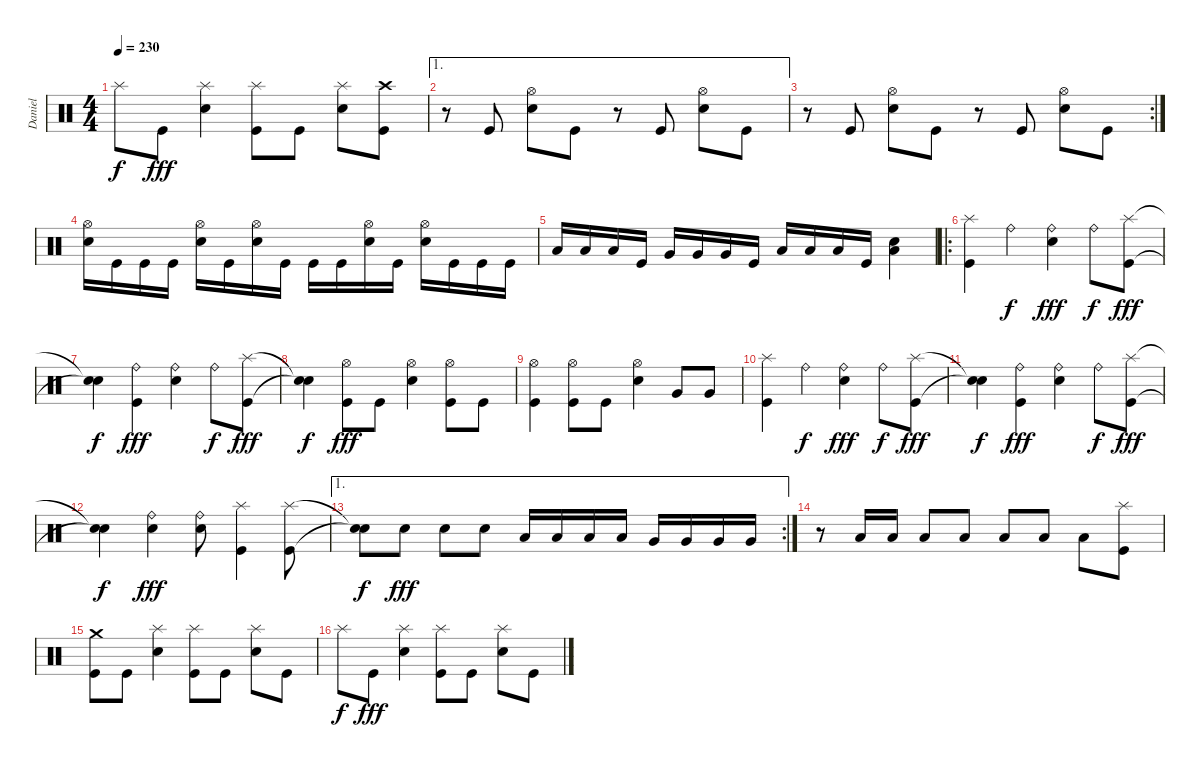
\track ("Daniel" "Daniel") {instrument percussion}
\staff {score}
\articulation defaults
\ts (4 4)
\tempo 230
\clef neutral
\ks c "Splash (hit)".8{dy f} "Kick (hit)".8{dy fff}
("Electric Snare (hit)" "Splash (hit)").4 ("Kick (hit)" "Splash (hit)").8 "Kick (hit)".8 ("Electric Snare (hit)" "Splash (hit)").8 ("Kick (hit)" "Crash high (hit)").8 |
\ae 1
r.8 "Kick (hit)".8 ("Electric Snare (hit)" "Hi-Hat (open)").8 "Kick (hit)".8 r.8 "Kick (hit)".8 ("Electric Snare (hit)" "Hi-Hat (open)").8 "Kick (hit)".8 |
\rc 2
r.8 "Kick (hit)".8 ("Electric Snare (hit)" "Hi-Hat (open)").8 "Kick (hit)".8 r.8 "Kick (hit)".8 ("Electric Snare (hit)" "Hi-Hat (open)").8 "Kick (hit)".8 |
("Electric Snare (hit)" "Hi-Hat (open)").16 "Kick (hit)".16 "Kick (hit)".16 "Kick (hit)".16 ("Electric Snare (hit)" "Hi-Hat (open)").16 "Kick (hit)".16 ("Electric Snare (hit)" "Hi-Hat (open)").16 "Kick (hit)".16 "Kick (hit)".16 "Kick (hit)".16 ("Electric Snare (hit)" "Hi-Hat (open)").16 "Kick (hit)".16 ("Electric Snare (hit)" "Hi-Hat (open)").16 "Kick (hit)".16 "Kick (hit)".16 "Kick (hit)".16 |
"Low Tom (hit)".16 "Low Tom (hit)".16 "Low Tom (hit)".16 "Kick (hit)".16 "Very Low Tom (hit)".16 "Very Low Tom (hit)".16 "Very Low Tom (hit)".16 "Kick (hit)".16 "Low Floor Tom (hit)".16 "Low Floor Tom (hit)".16 "Low Floor Tom (hit)".16 "Kick (hit)".16 ("Electric Snare (hit)" "Low Floor Tom (hit)").4 |
\ro
("Kick (hit)" "Splash (hit)").4 "Ride (bell)".4{dy f} ("Electric Snare (hit)" "Ride (bell)").4{dy fff} "Ride (bell)".8{dy f} ("Kick (hit)" "Splash (hit)").8{dy fff} |
("Snare (hit)"{t} "Snare (hit)"{t}).4{dy f} ("Kick (hit)" "Ride (bell)").4{dy fff} ("Electric Snare (hit)" "Ride (bell)").4 "Ride (bell)".8{dy f} ("Kick (hit)" "Splash (hit)").8{dy fff} |
("Snare (hit)"{t} "Snare (hit)"{t}).4{dy f} ("Kick (hit)" "Hi-Hat (open)").8{dy fff} "Kick (hit)".8 ("Electric Snare (hit)" "Hi-Hat (open)").4 ("Kick (hit)" "Hi-Hat (open)").8 "Kick (hit)".8 |
("Kick (hit)" "Hi-Hat (open)").4 ("Kick (hit)" "Hi-Hat (open)").8 "Kick (hit)".8 ("Electric Snare (hit)" "Hi-Hat (open)").4 "Very Low Tom (hit)".8 "Very Low Tom (hit)".8 |
("Kick (hit)" "Splash (hit)").4 "Ride (bell)".4{dy f} ("Electric Snare (hit)" "Ride (bell)").4{dy fff} "Ride (bell)".8{dy f} ("Kick (hit)" "Splash (hit)").8{dy fff} |
("Snare (hit)"{t} "Snare (hit)"{t}).4{dy f} ("Kick (hit)" "Ride (bell)").4{dy fff} ("Electric Snare (hit)" "Ride (bell)").4 "Ride (bell)".8{dy f} ("Kick (hit)" "Splash (hit)").8{dy fff} |
("Snare (hit)"{t} "Snare (hit)"{t}).4{dy f} ("Electric Snare (hit)" "Ride (bell)").4{dy fff} ("Electric Snare (hit)" "Ride (bell)").8 ("Kick (hit)" "Splash (hit)").4 ("Kick (hit)" "Splash (hit)").8 |
\ae 1
\rc 2
("Snare (hit)"{t} "Snare (hit)"{t}).8{dy f} "Electric Snare (hit)".8{dy fff} "Electric Snare (hit)".8 "Electric Snare (hit)".8 "Low Tom (hit)".16 "Low Tom (hit)".16 "Low Tom (hit)".16 "Low Tom (hit)".16 "Very Low Tom (hit)".16 "Very Low Tom (hit)".16 "Very Low Tom (hit)".16 "Very Low Tom (hit)".16 |
r.8 "Low Tom (hit)".16 "Low Tom (hit)".16 "Low Tom (hit)".8 "Low Tom (hit)".8 "Low Tom (hit)".8 "Low Floor Tom (hit)".8 "Low Floor Tom (hit)".8 ("Kick (hit)" "Splash (hit)").8 |
("Kick (hit)" "Crash medium (hit)").8 "Kick (hit)".8 ("Electric Snare (hit)" "Splash (hit)").4 ("Kick (hit)" "Splash (hit)").8 "Kick (hit)".8 ("Electric Snare (hit)" "Splash (hit)").8 "Kick (hit)".8 |
"Splash (hit)".8{dy f} "Kick (hit)".8{dy fff} ("Electric Snare (hit)" "Splash (hit)").4 ("Kick (hit)" "Splash (hit)").8 "Kick (hit)".8 ("Electric Snare (hit)" "Splash (hit)").8 "Kick (hit)".8
